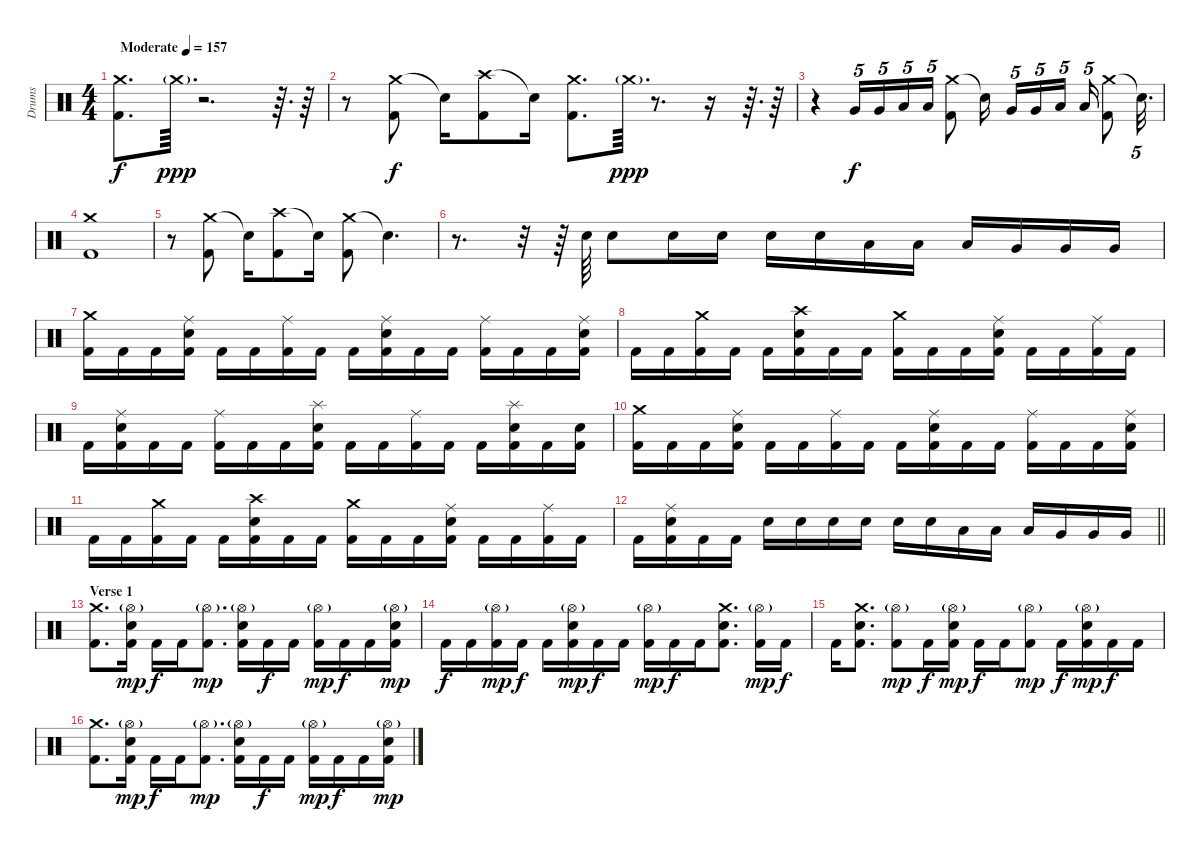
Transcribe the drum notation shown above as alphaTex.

\track ("Drums" "Drums") {instrument percussion}
\staff {score}
\articulation defaults
\ts (4 4)
\tempo (157 "Moderate")
\clef neutral
\ks c
("Crash medium (hit)" "Kick (hit) 2").8{d dy f} "Crash medium (hit)"{g}.64{d dy ppp} r.2{d} r.64{d} r.64 |
r.8 ("Crash medium (hit)" "Kick (hit) 2").8{dy f} "Snare (hit)"{t}.16 ("Crash high (hit)" "Kick (hit) 2").8 "Snare (hit)"{t}.16 ("Crash medium (hit)" "Kick (hit) 2").8{d} "Crash medium (hit)"{g}.64{d dy ppp} r.8{d} r.16 r.64{d} r.64 |
r.4 "Very Low Tom (hit)".16{tu (5 4) dy f} "Very Low Tom (hit)".16{tu (5 4)} "Low Floor Tom (hit)".16{tu (5 4)} "Low Floor Tom (hit)".16{tu (5 4)} ("Crash medium (hit)" "Kick (hit) 2").8 "Snare (hit)"{t}.16{beam splitsecondary} "Very Low Tom (hit)".16{tu (5 4)} "Very Low Tom (hit)".16{tu (5 4)} "Low Floor Tom (hit)".16{tu (5 4)} "Low Floor Tom (hit)".16{tu (5 4)} ("Crash medium (hit)" "Kick (hit) 2").8 "Snare (hit)"{t}.32{d tu (5 4)} |
("Crash medium (hit)" "Kick (hit) 2").1 |
r.8 ("Crash medium (hit)" "Kick (hit) 2").8 "Snare (hit)"{t}.16 ("Crash high (hit)" "Kick (hit) 2").8 "Snare (hit)"{t}.16 ("Crash medium (hit)" "Kick (hit) 2").8 "Snare (hit)"{t}.4{d} |
r.8{d} r.32 r.64 "Snare (hit) 2".64 "Snare (hit) 2".8 "Snare (hit) 2".16 "Snare (hit) 2".16 "Snare (hit) 2".16 "Snare (hit) 2".16 "Low Tom (hit)".16 "Low Tom (hit)".16 "Low Tom (hit)".16 "Very Low Tom (hit)".16 "Very Low Tom (hit)".16 "Very Low Tom (hit)".16 |
("Crash medium (hit)" "Kick (hit) 2").16 "Kick (hit) 2".16 "Kick (hit) 2".16 ("Ride (middle)" "Snare (hit) 2" "Kick (hit) 2").16 "Kick (hit) 2".16 "Kick (hit) 2".16 ("Ride (middle)" "Kick (hit) 2").16 "Kick (hit) 2".16 "Kick (hit) 2".16 ("Ride (middle)" "Snare (hit) 2" "Kick (hit) 2").16 "Kick (hit) 2".16 "Kick (hit) 2".16 ("Ride (middle)" "Kick (hit) 2").16 "Kick (hit) 2".16 "Kick (hit) 2".16 ("Ride (middle)" "Snare (hit) 2" "Kick (hit) 2").16 |
"Kick (hit) 2".16 "Kick (hit) 2".16 ("Crash medium (hit)" "Kick (hit) 2").16 "Kick (hit) 2".16 "Kick (hit) 2".16 ("Crash high (hit)" "Snare (hit) 2" "Kick (hit) 2").16 "Kick (hit) 2".16 "Kick (hit) 2".16 ("Crash medium (hit)" "Kick (hit) 2").16 "Kick (hit) 2".16 "Kick (hit) 2".16 ("Ride (middle)" "Snare (hit) 2" "Kick (hit) 2").16 "Kick (hit) 2".16 "Kick (hit) 2".16 ("Ride (middle)" "Kick (hit) 2").16 "Kick (hit) 2".16 |
"Kick (hit) 2".16 ("Ride (middle)" "Snare (hit) 2" "Kick (hit) 2").16 "Kick (hit) 2".16 "Kick (hit) 2".16 ("Ride (middle)" "Kick (hit) 2").16 "Kick (hit) 2".16 "Kick (hit) 2".16 ("Splash (hit)" "Snare (hit) 2" "Kick (hit) 2").16 "Kick (hit) 2".16 "Kick (hit) 2".16 ("Ride (middle)" "Kick (hit) 2").16 "Kick (hit) 2".16 "Kick (hit) 2".16 ("Splash (hit)" "Snare (hit) 2" "Kick (hit) 2").16 "Kick (hit) 2".16 ("Snare (hit) 2" "Kick (hit) 2").16 |
("Crash medium (hit)" "Kick (hit) 2").16 "Kick (hit) 2".16 "Kick (hit) 2".16 ("Ride (middle)" "Snare (hit) 2" "Kick (hit) 2").16 "Kick (hit) 2".16 "Kick (hit) 2".16 ("Ride (middle)" "Kick (hit) 2").16 "Kick (hit) 2".16 "Kick (hit) 2".16 ("Ride (middle)" "Snare (hit) 2" "Kick (hit) 2").16 "Kick (hit) 2".16 "Kick (hit) 2".16 ("Ride (middle)" "Kick (hit) 2").16 "Kick (hit) 2".16 "Kick (hit) 2".16 ("Ride (middle)" "Snare (hit) 2" "Kick (hit) 2").16 |
"Kick (hit) 2".16 "Kick (hit) 2".16 ("Crash medium (hit)" "Kick (hit) 2").16 "Kick (hit) 2".16 "Kick (hit) 2".16 ("Crash high (hit)" "Snare (hit) 2" "Kick (hit) 2").16 "Kick (hit) 2".16 "Kick (hit) 2".16 ("Crash medium (hit)" "Kick (hit) 2").16 "Kick (hit) 2".16 "Kick (hit) 2".16 ("Ride (middle)" "Snare (hit) 2" "Kick (hit) 2").16 "Kick (hit) 2".16 "Kick (hit) 2".16 ("Ride (middle)" "Kick (hit) 2").16 "Kick (hit) 2".16 |
\barLineRight lightlight "Kick (hit) 2".16
("Ride (middle)" "Snare (hit) 2" "Kick (hit) 2").16 "Kick (hit) 2".16 "Kick (hit) 2".16 "Snare (hit) 2".16 "Snare (hit) 2".16 "Snare (hit) 2".16 "Snare (hit) 2".16 "Snare (hit) 2".16 "Snare (hit) 2".16 "Low Tom (hit)".16 "Low Tom (hit)".16 "Low Tom (hit)".16 "Very Low Tom (hit)".16 "Very Low Tom (hit)".16 "Very Low Tom (hit)".16 |
\section ("" "Verse 1")
("Crash medium (hit)" "Kick (hit) 2").8{d} ("Snare (hit) 2" "Hi-Hat (open)"{g} "Kick (hit) 2").16{dy mp} "Kick (hit) 2".16{dy f} "Kick (hit) 2".16 ("Hi-Hat (open)"{g} "Kick (hit) 2").8{d dy mp} ("Snare (hit) 2" "Hi-Hat (open)"{g} "Kick (hit) 2").16 "Kick (hit) 2".16{dy f} "Kick (hit) 2".16 ("Hi-Hat (open)"{g} "Kick (hit) 2").16{dy mp} "Kick (hit) 2".16{dy f} "Kick (hit) 2".16 ("Snare (hit) 2" "Hi-Hat (open)"{g} "Kick (hit) 2").16{dy mp} |
"Kick (hit) 2".16{dy f} "Kick (hit) 2".16 ("Hi-Hat (open)"{g} "Kick (hit) 2").16{dy mp} "Kick (hit) 2".16{dy f} "Kick (hit) 2".16 ("Snare (hit) 2" "Hi-Hat (open)"{g} "Kick (hit) 2").16{dy mp} "Kick (hit) 2".16{dy f} "Kick (hit) 2".16 ("Hi-Hat (open)"{g} "Kick (hit) 2").16{dy mp} "Kick (hit) 2".16{dy f} "Kick (hit) 2".16 ("Crash medium (hit)" "Snare (hit) 2" "Kick (hit) 2").8{d} ("Hi-Hat (open)"{g} "Kick (hit) 2").16{dy mp} "Kick (hit) 2".16{dy f} |
"Kick (hit) 2".16 ("Crash medium (hit)" "Snare (hit) 2" "Kick (hit) 2").8{d} ("Hi-Hat (open)"{g} "Kick (hit) 2").8{dy mp} "Kick (hit) 2".16{dy f} ("Snare (hit) 2" "Hi-Hat (open)"{g} "Kick (hit) 2").16{dy mp} "Kick (hit) 2".16{dy f} "Kick (hit) 2".16 ("Hi-Hat (open)"{g} "Kick (hit) 2").8{dy mp} "Kick (hit) 2".16{dy f} ("Snare (hit) 2" "Hi-Hat (open)"{g} "Kick (hit) 2").16{dy mp} "Kick (hit) 2".16{dy f} "Kick (hit) 2".16 |
("Crash medium (hit)" "Kick (hit) 2").8{d} ("Snare (hit) 2" "Hi-Hat (open)"{g} "Kick (hit) 2").16{dy mp} "Kick (hit) 2".16{dy f} "Kick (hit) 2".16 ("Hi-Hat (open)"{g} "Kick (hit) 2").8{d dy mp} ("Snare (hit) 2" "Hi-Hat (open)"{g} "Kick (hit) 2").16 "Kick (hit) 2".16{dy f} "Kick (hit) 2".16 ("Hi-Hat (open)"{g} "Kick (hit) 2").16{dy mp} "Kick (hit) 2".16{dy f} "Kick (hit) 2".16 ("Snare (hit) 2" "Hi-Hat (open)"{g} "Kick (hit) 2").16{dy mp}
